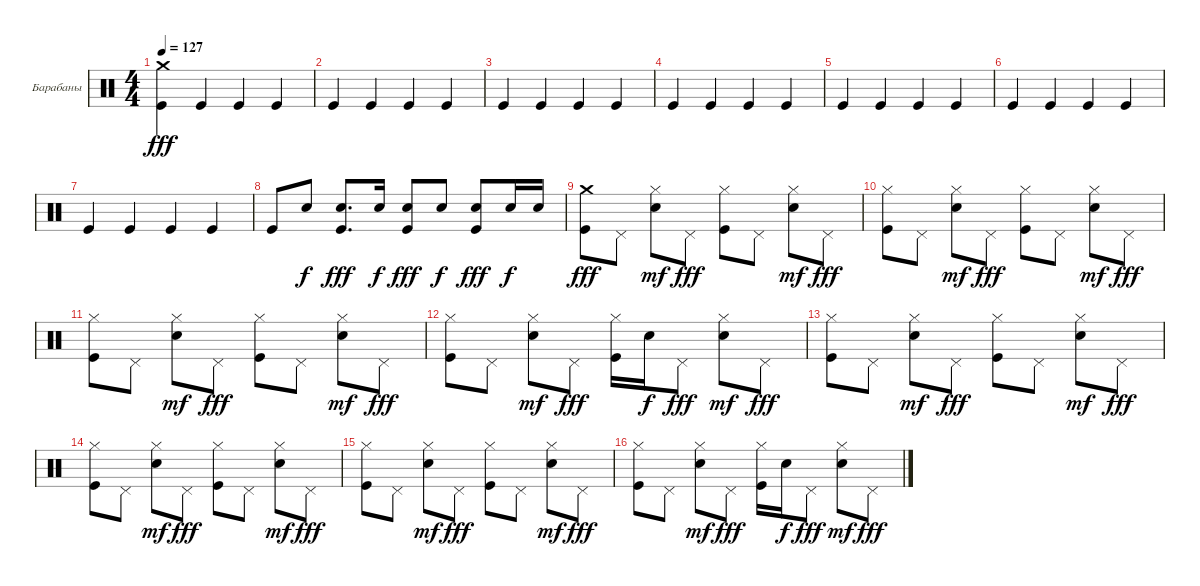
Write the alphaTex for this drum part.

\bracketExtendMode groupsimilarinstruments
\firstSystemTrackNameOrientation horizontal
\otherSystemsTrackNameOrientation horizontal
\track ("Ударные" "Барабаны") {instrument percussion}
\staff {score}
\articulation defaults
\ts (4 4)
\tempo 127
\clef neutral
\ks c
("Kick (hit)" "Crash medium (hit)").4{dy fff} "Kick (hit)".4 "Kick (hit)".4 "Kick (hit)".4 |
"Kick (hit)".4 "Kick (hit)".4 "Kick (hit)".4 "Kick (hit)".4 |
"Kick (hit)".4 "Kick (hit)".4 "Kick (hit)".4 "Kick (hit)".4 |
"Kick (hit)".4 "Kick (hit)".4 "Kick (hit)".4 "Kick (hit)".4 |
"Kick (hit)".4 "Kick (hit)".4 "Kick (hit)".4 "Kick (hit)".4 |
"Kick (hit)".4 "Kick (hit)".4 "Kick (hit)".4 "Kick (hit)".4 |
"Kick (hit)".4 "Kick (hit)".4 "Kick (hit)".4 "Kick (hit)".4 |
"Kick (hit)".8 "Snare (hit) 2".8{dy f} ("Kick (hit)" "Snare (hit) 2").8{d dy fff} "Snare (hit) 2".16{dy f} ("Kick (hit)" "Snare (hit) 2").8{dy fff} "Snare (hit) 2".8{dy f} ("Kick (hit)" "Snare (hit) 2").8{dy fff} "Snare (hit) 2".16{dy f} "Snare (hit) 2".16 |
("Kick (hit)" "Crash medium (hit)").8{dy fff} "Pedal Hi-Hat (hit)".8 ("Hi-Hat (closed)" "Snare (hit) 2").8{dy mf} "Pedal Hi-Hat (hit)".8{dy fff} ("Kick (hit)" "Hi-Hat (closed)").8 "Pedal Hi-Hat (hit)".8 ("Hi-Hat (closed)" "Snare (hit) 2").8{dy mf} "Pedal Hi-Hat (hit)".8{dy fff} |
("Kick (hit)" "Hi-Hat (closed)").8 "Pedal Hi-Hat (hit)".8 ("Hi-Hat (closed)" "Snare (hit) 2").8{dy mf} "Pedal Hi-Hat (hit)".8{dy fff} ("Kick (hit)" "Hi-Hat (closed)").8 "Pedal Hi-Hat (hit)".8 ("Hi-Hat (closed)" "Snare (hit) 2").8{dy mf} "Pedal Hi-Hat (hit)".8{dy fff} |
("Kick (hit)" "Hi-Hat (closed)").8 "Pedal Hi-Hat (hit)".8 ("Hi-Hat (closed)" "Snare (hit) 2").8{dy mf} "Pedal Hi-Hat (hit)".8{dy fff} ("Kick (hit)" "Hi-Hat (closed)").8 "Pedal Hi-Hat (hit)".8 ("Hi-Hat (closed)" "Snare (hit) 2").8{dy mf} "Pedal Hi-Hat (hit)".8{dy fff} |
("Kick (hit)" "Hi-Hat (closed)").8 "Pedal Hi-Hat (hit)".8 ("Hi-Hat (closed)" "Snare (hit) 2").8{dy mf} "Pedal Hi-Hat (hit)".8{dy fff} ("Kick (hit)" "Hi-Hat (closed)").16 "Snare (hit) 2".16{dy f} "Pedal Hi-Hat (hit)".8{dy fff} ("Hi-Hat (closed)" "Snare (hit) 2").8{dy mf} "Pedal Hi-Hat (hit)".8{dy fff} |
("Kick (hit)" "Hi-Hat (closed)").8 "Pedal Hi-Hat (hit)".8 ("Hi-Hat (closed)" "Snare (hit) 2").8{dy mf} "Pedal Hi-Hat (hit)".8{dy fff} ("Kick (hit)" "Hi-Hat (closed)").8 "Pedal Hi-Hat (hit)".8 ("Hi-Hat (closed)" "Snare (hit) 2").8{dy mf} "Pedal Hi-Hat (hit)".8{dy fff} |
("Kick (hit)" "Hi-Hat (closed)").8 "Pedal Hi-Hat (hit)".8 ("Hi-Hat (closed)" "Snare (hit) 2").8{dy mf} "Pedal Hi-Hat (hit)".8{dy fff} ("Kick (hit)" "Hi-Hat (closed)").8 "Pedal Hi-Hat (hit)".8 ("Hi-Hat (closed)" "Snare (hit) 2").8{dy mf} "Pedal Hi-Hat (hit)".8{dy fff} |
("Kick (hit)" "Hi-Hat (closed)").8 "Pedal Hi-Hat (hit)".8 ("Hi-Hat (closed)" "Snare (hit) 2").8{dy mf} "Pedal Hi-Hat (hit)".8{dy fff} ("Kick (hit)" "Hi-Hat (closed)").8 "Pedal Hi-Hat (hit)".8 ("Hi-Hat (closed)" "Snare (hit) 2").8{dy mf} "Pedal Hi-Hat (hit)".8{dy fff} |
("Kick (hit)" "Hi-Hat (closed)").8 "Pedal Hi-Hat (hit)".8 ("Hi-Hat (closed)" "Snare (hit) 2").8{dy mf} "Pedal Hi-Hat (hit)".8{dy fff} ("Kick (hit)" "Hi-Hat (closed)").16 "Snare (hit) 2".16{dy f} "Pedal Hi-Hat (hit)".8{dy fff} ("Hi-Hat (closed)" "Snare (hit) 2").8{dy mf} "Pedal Hi-Hat (hit)".8{dy fff}
